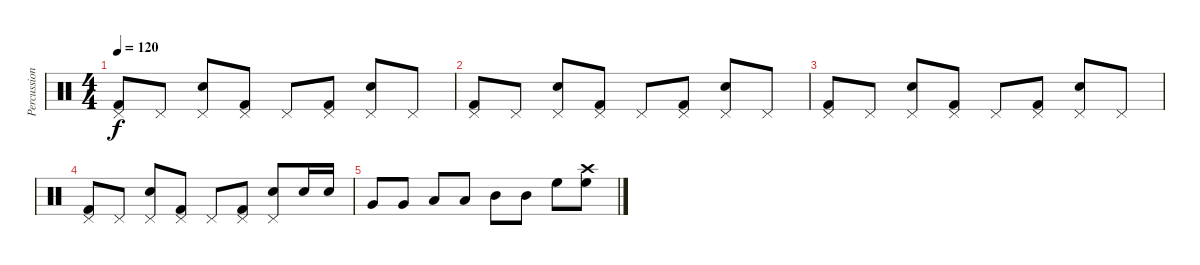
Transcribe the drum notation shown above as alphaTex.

\track ("Percussion" "Percussion") {instrument percussion}
\staff {score}
\articulation defaults
\ts (4 4)
\tempo 120
\clef neutral
\ks c
("Pedal Hi-Hat (hit)" "Kick (hit) 2").8{dy f} "Pedal Hi-Hat (hit)".8 ("Pedal Hi-Hat (hit)" "Electric Snare (hit)").8 ("Pedal Hi-Hat (hit)" "Kick (hit) 2").8 "Pedal Hi-Hat (hit)".8 ("Pedal Hi-Hat (hit)" "Kick (hit) 2").8 ("Pedal Hi-Hat (hit)" "Electric Snare (hit)").8 "Pedal Hi-Hat (hit)".8 |
("Pedal Hi-Hat (hit)" "Kick (hit) 2").8 "Pedal Hi-Hat (hit)".8 ("Pedal Hi-Hat (hit)" "Electric Snare (hit)").8 ("Pedal Hi-Hat (hit)" "Kick (hit) 2").8 "Pedal Hi-Hat (hit)".8 ("Pedal Hi-Hat (hit)" "Kick (hit) 2").8 ("Pedal Hi-Hat (hit)" "Electric Snare (hit)").8 "Pedal Hi-Hat (hit)".8 |
("Pedal Hi-Hat (hit)" "Kick (hit) 2").8 "Pedal Hi-Hat (hit)".8 ("Pedal Hi-Hat (hit)" "Electric Snare (hit)").8 ("Pedal Hi-Hat (hit)" "Kick (hit) 2").8 "Pedal Hi-Hat (hit)".8 ("Pedal Hi-Hat (hit)" "Kick (hit) 2").8 ("Pedal Hi-Hat (hit)" "Electric Snare (hit)").8 "Pedal Hi-Hat (hit)".8 |
("Pedal Hi-Hat (hit)" "Kick (hit) 2").8 "Pedal Hi-Hat (hit)".8 ("Pedal Hi-Hat (hit)" "Electric Snare (hit)").8 ("Pedal Hi-Hat (hit)" "Kick (hit) 2").8 "Pedal Hi-Hat (hit)".8 ("Pedal Hi-Hat (hit)" "Kick (hit) 2").8 ("Pedal Hi-Hat (hit)" "Electric Snare (hit)").8 "Electric Snare (hit)".16 "Electric Snare (hit)".16 |
"Very Low Tom (hit)".8 "Very Low Tom (hit)".8 "Low Tom (hit)".8 "Low Tom (hit)".8 "Mid Tom (hit)".8 "Mid Tom (hit)".8 "High Floor Tom (hit)".8 ("Crash high (hit)" "High Floor Tom (hit)").8
